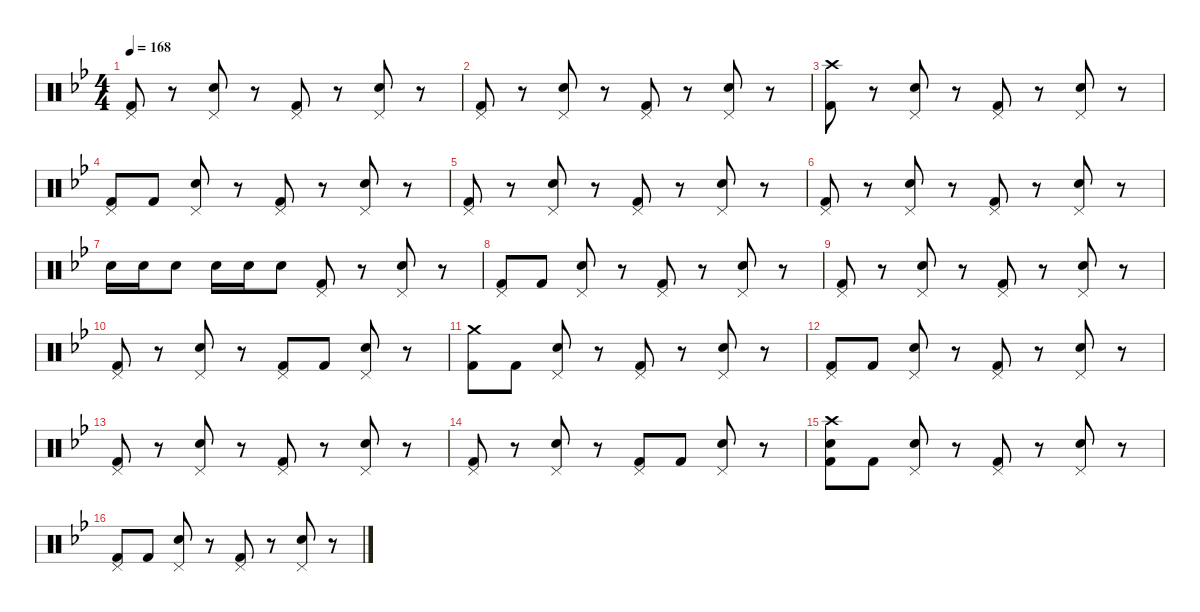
\defaultSystemsLayout 4
\hideDynamics
\bracketExtendMode nobrackets
\singleTrackTrackNamePolicy hidden
\multiTrackTrackNamePolicy hidden
\firstSystemTrackNameMode fullname
\otherSystemsTrackNameOrientation horizontal
\track ("DRUMS" "drm.") {instrument percussion}
\staff {score}
\articulation defaults
\ts (4 4)
\tempo 168
\clef neutral
\ks bb
("Pedal Hi-Hat (hit)"{acc forcenatural} "Kick (hit) 2"{acc forcenatural}).8{dy ff beam Up} r.8{beam Up} ("Pedal Hi-Hat (hit)"{acc forcenatural} "Snare (hit) 2"{acc forcenatural}).8{beam Up} r.8{beam Up} ("Pedal Hi-Hat (hit)"{acc forcenatural} "Kick (hit) 2"{acc forcenatural}).8{beam Up} r.8{beam Up} ("Pedal Hi-Hat (hit)"{acc forcenatural} "Snare (hit) 2"{acc forcenatural}).8{beam Up} r.8{beam Up} |
("Pedal Hi-Hat (hit)"{acc forcenatural} "Kick (hit) 2"{acc forcenatural}).8{beam Up} r.8{beam Up} ("Pedal Hi-Hat (hit)"{acc forcenatural} "Snare (hit) 2"{acc forcenatural}).8{beam Up} r.8{beam Up} ("Pedal Hi-Hat (hit)"{acc forcenatural} "Kick (hit) 2"{acc forcenatural}).8{beam Up} r.8{beam Up} ("Pedal Hi-Hat (hit)"{acc forcenatural} "Snare (hit) 2"{acc forcenatural}).8{beam Up} r.8{beam Up} |
("Crash high (hit)"{acc forcenatural} "Kick (hit) 2"{acc forcenatural}).8{beam Down} r.8{beam Down} ("Pedal Hi-Hat (hit)"{acc forcenatural} "Snare (hit) 2"{acc forcenatural}).8{beam Up} r.8{beam Up} ("Pedal Hi-Hat (hit)"{acc forcenatural} "Kick (hit) 2"{acc forcenatural}).8{beam Up} r.8{beam Up} ("Pedal Hi-Hat (hit)"{acc forcenatural} "Snare (hit) 2"{acc forcenatural}).8{beam Up} r.8{beam Up} |
("Pedal Hi-Hat (hit)"{acc forcenatural} "Kick (hit) 2"{acc forcenatural}).8{beam Up} "Kick (hit) 2"{acc forcenatural}.8{dy f beam Up} ("Pedal Hi-Hat (hit)"{acc forcenatural} "Snare (hit) 2"{acc forcenatural}).8{dy ff beam Up} r.8{beam Up} ("Pedal Hi-Hat (hit)"{acc forcenatural} "Kick (hit) 2"{acc forcenatural}).8{beam Up} r.8{beam Up} ("Pedal Hi-Hat (hit)"{acc forcenatural} "Snare (hit) 2"{acc forcenatural}).8{beam Up} r.8{beam Up} |
("Pedal Hi-Hat (hit)"{acc forcenatural} "Kick (hit) 2"{acc forcenatural}).8{beam Up} r.8{beam Up} ("Pedal Hi-Hat (hit)"{acc forcenatural} "Snare (hit) 2"{acc forcenatural}).8{beam Up} r.8{beam Up} ("Pedal Hi-Hat (hit)"{acc forcenatural} "Kick (hit) 2"{acc forcenatural}).8{beam Up} r.8{beam Up} ("Pedal Hi-Hat (hit)"{acc forcenatural} "Snare (hit) 2"{acc forcenatural}).8{beam Up} r.8{beam Up} |
("Pedal Hi-Hat (hit)"{acc forcenatural} "Kick (hit) 2"{acc forcenatural}).8{beam Up} r.8{beam Up} ("Pedal Hi-Hat (hit)"{acc forcenatural} "Snare (hit) 2"{acc forcenatural}).8{beam Up} r.8{beam Up} ("Pedal Hi-Hat (hit)"{acc forcenatural} "Kick (hit) 2"{acc forcenatural}).8{beam Up} r.8{beam Up} ("Pedal Hi-Hat (hit)"{acc forcenatural} "Snare (hit) 2"{acc forcenatural}).8{beam Up} r.8{beam Up} |
"Snare (hit) 2"{acc forcenatural}.16{dy mf beam Down} "Snare (hit) 2"{acc forcenatural}.16{beam Down} "Snare (hit) 2"{acc forcenatural}.8{dy ff beam Down} "Snare (hit) 2"{acc forcenatural}.16{dy mf beam Down} "Snare (hit) 2"{acc forcenatural}.16{beam Down} "Snare (hit) 2"{acc forcenatural}.8{dy ff beam Down} ("Pedal Hi-Hat (hit)"{acc forcenatural} "Kick (hit) 2"{acc forcenatural}).8{beam Up} r.8{beam Up} ("Pedal Hi-Hat (hit)"{acc forcenatural} "Snare (hit) 2"{acc forcenatural}).8{beam Up} r.8{beam Up} |
("Pedal Hi-Hat (hit)"{acc forcenatural} "Kick (hit) 2"{acc forcenatural}).8{beam Up} "Kick (hit) 2"{acc forcenatural}.8{dy f beam Up} ("Pedal Hi-Hat (hit)"{acc forcenatural} "Snare (hit) 2"{acc forcenatural}).8{dy ff beam Up} r.8{beam Up} ("Pedal Hi-Hat (hit)"{acc forcenatural} "Kick (hit) 2"{acc forcenatural}).8{beam Up} r.8{beam Up} ("Pedal Hi-Hat (hit)"{acc forcenatural} "Snare (hit) 2"{acc forcenatural}).8{beam Up} r.8{beam Up} |
("Pedal Hi-Hat (hit)"{acc forcenatural} "Kick (hit) 2"{acc forcenatural}).8{beam Up} r.8{beam Up} ("Pedal Hi-Hat (hit)"{acc forcenatural} "Snare (hit) 2"{acc forcenatural}).8{beam Up} r.8{beam Up} ("Pedal Hi-Hat (hit)"{acc forcenatural} "Kick (hit) 2"{acc forcenatural}).8{beam Up} r.8{beam Up} ("Pedal Hi-Hat (hit)"{acc forcenatural} "Snare (hit) 2"{acc forcenatural}).8{beam Up} r.8{beam Up} |
("Pedal Hi-Hat (hit)"{acc forcenatural} "Kick (hit) 2"{acc forcenatural}).8{beam Up} r.8{beam Up} ("Pedal Hi-Hat (hit)"{acc forcenatural} "Snare (hit) 2"{acc forcenatural}).8{beam Up} r.8{beam Up} ("Pedal Hi-Hat (hit)"{acc forcenatural} "Kick (hit) 2"{acc forcenatural}).8{beam Up} "Kick (hit) 2"{acc forcenatural}.8{dy f beam Up} ("Pedal Hi-Hat (hit)"{acc forcenatural} "Snare (hit) 2"{acc forcenatural}).8{dy ff beam Up} r.8{beam Up} |
("Crash medium (hit)"{acc forcenatural} "Kick (hit) 2"{acc forcenatural}).8{dy f beam Down} "Kick (hit) 2"{acc forcenatural}.8{dy mf beam Down} ("Pedal Hi-Hat (hit)"{acc forcenatural} "Snare (hit) 2"{acc forcenatural}).8{dy ff beam Up} r.8{beam Up} ("Pedal Hi-Hat (hit)"{acc forcenatural} "Kick (hit) 2"{acc forcenatural}).8{beam Up} r.8{beam Up} ("Pedal Hi-Hat (hit)"{acc forcenatural} "Snare (hit) 2"{acc forcenatural}).8{beam Up} r.8{beam Up} |
("Pedal Hi-Hat (hit)"{acc forcenatural} "Kick (hit) 2"{acc forcenatural}).8{beam Up} "Kick (hit) 2"{acc forcenatural}.8{dy mf beam Up} ("Pedal Hi-Hat (hit)"{acc forcenatural} "Snare (hit) 2"{acc forcenatural}).8{dy ff beam Up} r.8{beam Up} ("Pedal Hi-Hat (hit)"{acc forcenatural} "Kick (hit) 2"{acc forcenatural}).8{beam Up} r.8{beam Up} ("Pedal Hi-Hat (hit)"{acc forcenatural} "Snare (hit) 2"{acc forcenatural}).8{beam Up} r.8{beam Up} |
("Pedal Hi-Hat (hit)"{acc forcenatural} "Kick (hit) 2"{acc forcenatural}).8{beam Up} r.8{beam Up} ("Pedal Hi-Hat (hit)"{acc forcenatural} "Snare (hit) 2"{acc forcenatural}).8{beam Up} r.8{beam Up} ("Pedal Hi-Hat (hit)"{acc forcenatural} "Kick (hit) 2"{acc forcenatural}).8{beam Up} r.8{beam Up} ("Pedal Hi-Hat (hit)"{acc forcenatural} "Snare (hit) 2"{acc forcenatural}).8{beam Up} r.8{beam Up} |
("Pedal Hi-Hat (hit)"{acc forcenatural} "Kick (hit) 2"{acc forcenatural}).8{beam Up} r.8{beam Up} ("Pedal Hi-Hat (hit)"{acc forcenatural} "Snare (hit) 2"{acc forcenatural}).8{beam Up} r.8{beam Up} ("Pedal Hi-Hat (hit)"{acc forcenatural} "Kick (hit) 2"{acc forcenatural}).8{beam Up} "Kick (hit) 2"{acc forcenatural}.8{dy f beam Up} ("Pedal Hi-Hat (hit)"{acc forcenatural} "Snare (hit) 2"{acc forcenatural}).8{dy ff beam Up} r.8{beam Up} |
("Crash high (hit)"{acc forcenatural} "Snare (hit) 2"{acc forcenatural} "Kick (hit) 2"{acc forcenatural}).8{beam Down} "Kick (hit) 2"{acc forcenatural}.8{dy mf beam Down} ("Pedal Hi-Hat (hit)"{acc forcenatural} "Snare (hit) 2"{acc forcenatural}).8{dy ff beam Up} r.8{beam Up} ("Pedal Hi-Hat (hit)"{acc forcenatural} "Kick (hit) 2"{acc forcenatural}).8{beam Up} r.8{beam Up} ("Pedal Hi-Hat (hit)"{acc forcenatural} "Snare (hit) 2"{acc forcenatural}).8{beam Up} r.8{beam Up} |
("Pedal Hi-Hat (hit)"{acc forcenatural} "Kick (hit) 2"{acc forcenatural}).8{beam Up} "Kick (hit) 2"{acc forcenatural}.8{dy mf beam Up} ("Pedal Hi-Hat (hit)"{acc forcenatural} "Snare (hit) 2"{acc forcenatural}).8{dy ff beam Up} r.8{beam Up} ("Pedal Hi-Hat (hit)"{acc forcenatural} "Kick (hit) 2"{acc forcenatural}).8{beam Up} r.8{beam Up} ("Pedal Hi-Hat (hit)"{acc forcenatural} "Snare (hit) 2"{acc forcenatural}).8{beam Up} r.8{beam Up}
